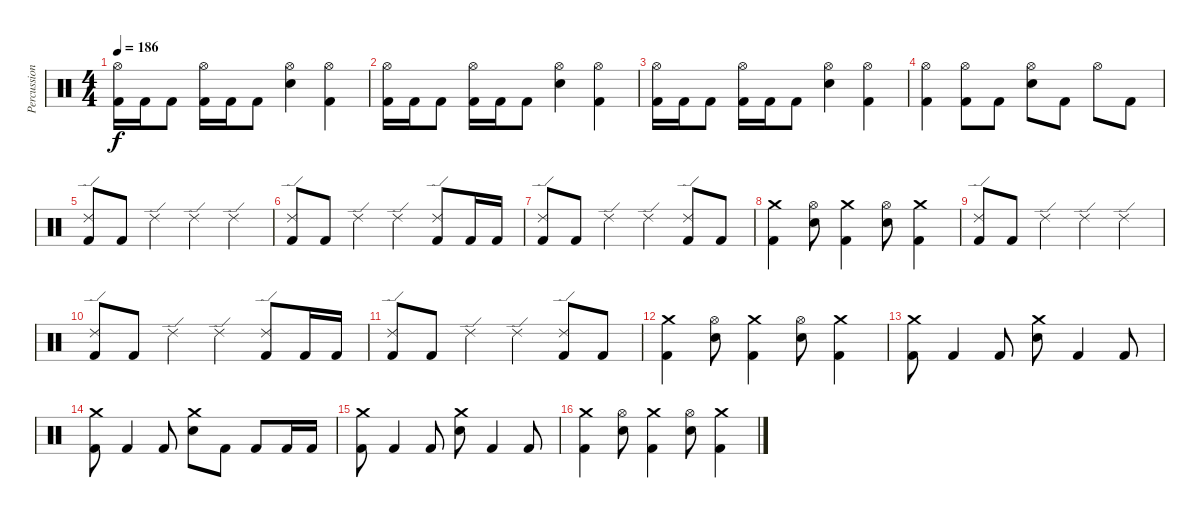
\track ("Percussion" "Percussion") {instrument percussion}
\staff {score}
\articulation defaults
\ts (4 4)
\tempo 186
\clef neutral
\ks c
("Hi-Hat (open)" "Kick (hit) 2").16{dy f} "Kick (hit) 2".16 "Kick (hit) 2".8 ("Hi-Hat (open)" "Kick (hit) 2").16 "Kick (hit) 2".16 "Kick (hit) 2".8 ("Hi-Hat (open)" "Snare (hit) 2").4 ("Hi-Hat (open)" "Kick (hit) 2").4 |
("Hi-Hat (open)" "Kick (hit) 2").16 "Kick (hit) 2".16 "Kick (hit) 2".8 ("Hi-Hat (open)" "Kick (hit) 2").16 "Kick (hit) 2".16 "Kick (hit) 2".8 ("Hi-Hat (open)" "Snare (hit) 2").4 ("Hi-Hat (open)" "Kick (hit) 2").4 |
("Hi-Hat (open)" "Kick (hit) 2").16 "Kick (hit) 2".16 "Kick (hit) 2".8 ("Hi-Hat (open)" "Kick (hit) 2").16 "Kick (hit) 2".16 "Kick (hit) 2".8 ("Hi-Hat (open)" "Snare (hit) 2").4 ("Hi-Hat (open)" "Kick (hit) 2").4 |
("Hi-Hat (open)" "Kick (hit) 2").4 ("Hi-Hat (open)" "Kick (hit) 2").8 "Kick (hit) 2".8 ("Hi-Hat (open)" "Snare (hit) 2").8 "Kick (hit) 2".8 "Hi-Hat (open)".8 "Kick (hit) 2".8 |
("Ride (edge) 2" "Kick (hit) 2").8 "Kick (hit) 2".8 "Ride (edge) 2".4 "Ride (edge) 2".4 "Ride (edge) 2".4 |
("Ride (edge) 2" "Kick (hit) 2").8 "Kick (hit) 2".8 "Ride (edge) 2".4 "Ride (edge) 2".4 ("Ride (edge) 2" "Kick (hit) 2").8 "Kick (hit) 2".16 "Kick (hit) 2".16 |
("Ride (edge) 2" "Kick (hit) 2").8 "Kick (hit) 2".8 "Ride (edge) 2".4 "Ride (edge) 2".4 ("Ride (edge) 2" "Kick (hit) 2").8 "Kick (hit) 2".8 |
("Crash medium (hit)" "Kick (hit) 2").4 ("Hi-Hat (open)" "Snare (hit) 2").8 ("Crash medium (hit)" "Kick (hit) 2").4 ("Hi-Hat (open)" "Snare (hit) 2").8 ("Crash medium (hit)" "Kick (hit) 2").4 |
("Ride (edge) 2" "Kick (hit) 2").8 "Kick (hit) 2".8 "Ride (edge) 2".4 "Ride (edge) 2".4 "Ride (edge) 2".4 |
("Ride (edge) 2" "Kick (hit) 2").8 "Kick (hit) 2".8 "Ride (edge) 2".4 "Ride (edge) 2".4 ("Ride (edge) 2" "Kick (hit) 2").8 "Kick (hit) 2".16 "Kick (hit) 2".16 |
("Ride (edge) 2" "Kick (hit) 2").8 "Kick (hit) 2".8 "Ride (edge) 2".4 "Ride (edge) 2".4 ("Ride (edge) 2" "Kick (hit) 2").8 "Kick (hit) 2".8 |
("Crash medium (hit)" "Kick (hit) 2").4 ("Hi-Hat (open)" "Snare (hit) 2").8 ("Crash medium (hit)" "Kick (hit) 2").4 ("Hi-Hat (open)" "Snare (hit) 2").8 ("Crash medium (hit)" "Kick (hit) 2").4 |
("Crash medium (hit)" "Kick (hit) 2").8 "Kick (hit) 2".4 "Kick (hit) 2".8 ("Crash medium (hit)" "Snare (hit) 2").8 "Kick (hit) 2".4 "Kick (hit) 2".8 |
("Crash medium (hit)" "Kick (hit) 2").8 "Kick (hit) 2".4 "Kick (hit) 2".8 ("Crash medium (hit)" "Snare (hit) 2").8 "Kick (hit) 2".8 "Kick (hit) 2".8 "Kick (hit) 2".16 "Kick (hit) 2".16 |
("Crash medium (hit)" "Kick (hit) 2").8 "Kick (hit) 2".4 "Kick (hit) 2".8 ("Crash medium (hit)" "Snare (hit) 2").8 "Kick (hit) 2".4 "Kick (hit) 2".8 |
("Crash medium (hit)" "Kick (hit) 2").4 ("Hi-Hat (open)" "Snare (hit) 2").8 ("Crash medium (hit)" "Kick (hit) 2").4 ("Hi-Hat (open)" "Snare (hit) 2").8 ("Crash medium (hit)" "Kick (hit) 2").4
